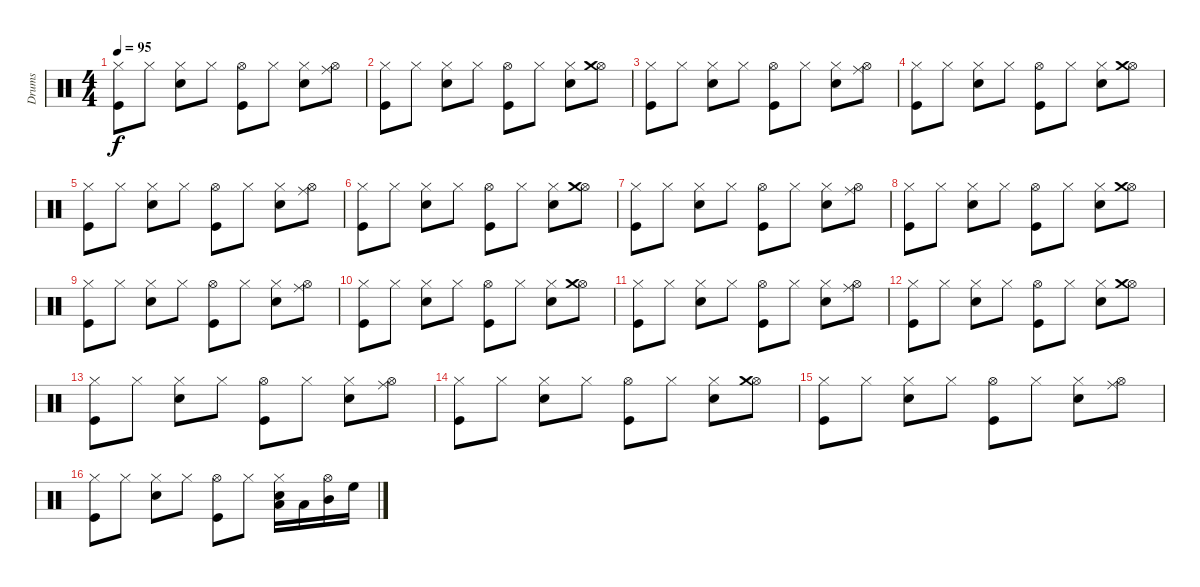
\track ("Drums" "Drums") {instrument percussion}
\staff {score}
\articulation defaults
\ts (4 4)
\tempo 95
\clef neutral
\ks c
("Hi-Hat (closed)" "Kick (hit)").8{dy f} "Hi-Hat (closed)".8 ("Hi-Hat (closed)" "Snare (hit) 2").8 "Hi-Hat (closed)".8 ("Hi-Hat (open)" "Kick (hit)").8 "Hi-Hat (closed)".8 ("Hi-Hat (closed)" "Snare (hit) 2").8 ("Hi-Hat (open)" "Ride (middle)").8 |
("Hi-Hat (closed)" "Kick (hit)").8 "Hi-Hat (closed)".8 ("Hi-Hat (closed)" "Snare (hit) 2").8 "Hi-Hat (closed)".8 ("Hi-Hat (open)" "Kick (hit)").8 "Hi-Hat (closed)".8 ("Hi-Hat (closed)" "Snare (hit) 2").8 ("Hi-Hat (open)" "Crash medium (hit)").8 |
("Hi-Hat (closed)" "Kick (hit)").8 "Hi-Hat (closed)".8 ("Hi-Hat (closed)" "Snare (hit) 2").8 "Hi-Hat (closed)".8 ("Hi-Hat (open)" "Kick (hit)").8 "Hi-Hat (closed)".8 ("Hi-Hat (closed)" "Snare (hit) 2").8 ("Hi-Hat (open)" "Ride (middle)").8 |
("Hi-Hat (closed)" "Kick (hit)").8 "Hi-Hat (closed)".8 ("Hi-Hat (closed)" "Snare (hit) 2").8 "Hi-Hat (closed)".8 ("Hi-Hat (open)" "Kick (hit)").8 "Hi-Hat (closed)".8 ("Hi-Hat (closed)" "Snare (hit) 2").8 ("Hi-Hat (open)" "Crash medium (hit)").8 |
("Hi-Hat (closed)" "Kick (hit)").8 "Hi-Hat (closed)".8 ("Hi-Hat (closed)" "Snare (hit) 2").8 "Hi-Hat (closed)".8 ("Hi-Hat (open)" "Kick (hit)").8 "Hi-Hat (closed)".8 ("Hi-Hat (closed)" "Snare (hit) 2").8 ("Hi-Hat (open)" "Ride (middle)").8 |
("Hi-Hat (closed)" "Kick (hit)").8 "Hi-Hat (closed)".8 ("Hi-Hat (closed)" "Snare (hit) 2").8 "Hi-Hat (closed)".8 ("Hi-Hat (open)" "Kick (hit)").8 "Hi-Hat (closed)".8 ("Hi-Hat (closed)" "Snare (hit) 2").8 ("Hi-Hat (open)" "Crash medium (hit)").8 |
("Hi-Hat (closed)" "Kick (hit)").8 "Hi-Hat (closed)".8 ("Hi-Hat (closed)" "Snare (hit) 2").8 "Hi-Hat (closed)".8 ("Hi-Hat (open)" "Kick (hit)").8 "Hi-Hat (closed)".8 ("Hi-Hat (closed)" "Snare (hit) 2").8 ("Hi-Hat (open)" "Ride (middle)").8 |
("Hi-Hat (closed)" "Kick (hit)").8 "Hi-Hat (closed)".8 ("Hi-Hat (closed)" "Snare (hit) 2").8 "Hi-Hat (closed)".8 ("Hi-Hat (open)" "Kick (hit)").8 "Hi-Hat (closed)".8 ("Hi-Hat (closed)" "Snare (hit) 2").8 ("Hi-Hat (open)" "Crash medium (hit)").8 |
("Hi-Hat (closed)" "Kick (hit)").8 "Hi-Hat (closed)".8 ("Hi-Hat (closed)" "Snare (hit) 2").8 "Hi-Hat (closed)".8 ("Hi-Hat (open)" "Kick (hit)").8 "Hi-Hat (closed)".8 ("Hi-Hat (closed)" "Snare (hit) 2").8 ("Hi-Hat (open)" "Ride (middle)").8 |
("Hi-Hat (closed)" "Kick (hit)").8 "Hi-Hat (closed)".8 ("Hi-Hat (closed)" "Snare (hit) 2").8 "Hi-Hat (closed)".8 ("Hi-Hat (open)" "Kick (hit)").8 "Hi-Hat (closed)".8 ("Hi-Hat (closed)" "Snare (hit) 2").8 ("Hi-Hat (open)" "Crash medium (hit)").8 |
("Hi-Hat (closed)" "Kick (hit)").8 "Hi-Hat (closed)".8 ("Hi-Hat (closed)" "Snare (hit) 2").8 "Hi-Hat (closed)".8 ("Hi-Hat (open)" "Kick (hit)").8 "Hi-Hat (closed)".8 ("Hi-Hat (closed)" "Snare (hit) 2").8 ("Hi-Hat (open)" "Ride (middle)").8 |
("Hi-Hat (closed)" "Kick (hit)").8 "Hi-Hat (closed)".8 ("Hi-Hat (closed)" "Snare (hit) 2").8 "Hi-Hat (closed)".8 ("Hi-Hat (open)" "Kick (hit)").8 "Hi-Hat (closed)".8 ("Hi-Hat (closed)" "Snare (hit) 2").8 ("Hi-Hat (open)" "Crash medium (hit)").8 |
("Hi-Hat (closed)" "Kick (hit)").8 "Hi-Hat (closed)".8 ("Hi-Hat (closed)" "Snare (hit) 2").8 "Hi-Hat (closed)".8 ("Hi-Hat (open)" "Kick (hit)").8 "Hi-Hat (closed)".8 ("Hi-Hat (closed)" "Snare (hit) 2").8 ("Hi-Hat (open)" "Ride (middle)").8 |
("Hi-Hat (closed)" "Kick (hit)").8 "Hi-Hat (closed)".8 ("Hi-Hat (closed)" "Snare (hit) 2").8 "Hi-Hat (closed)".8 ("Hi-Hat (open)" "Kick (hit)").8 "Hi-Hat (closed)".8 ("Hi-Hat (closed)" "Snare (hit) 2").8 ("Hi-Hat (open)" "Crash medium (hit)").8 |
("Hi-Hat (closed)" "Kick (hit)").8 "Hi-Hat (closed)".8 ("Hi-Hat (closed)" "Snare (hit) 2").8 "Hi-Hat (closed)".8 ("Hi-Hat (open)" "Kick (hit)").8 "Hi-Hat (closed)".8 ("Hi-Hat (closed)" "Snare (hit) 2").8 ("Hi-Hat (open)" "Ride (middle)").8 |
("Hi-Hat (closed)" "Kick (hit)").8 "Hi-Hat (closed)".8 ("Hi-Hat (closed)" "Snare (hit) 2").8 "Hi-Hat (closed)".8 ("Hi-Hat (open)" "Kick (hit)").8 "Hi-Hat (closed)".8 ("Hi-Hat (closed)" "Snare (hit) 2" "Low Floor Tom (hit)").16 "Low Tom (hit)".16 ("Hi-Hat (open)" "Mid Tom (hit)").16 "High Floor Tom (hit)".16
